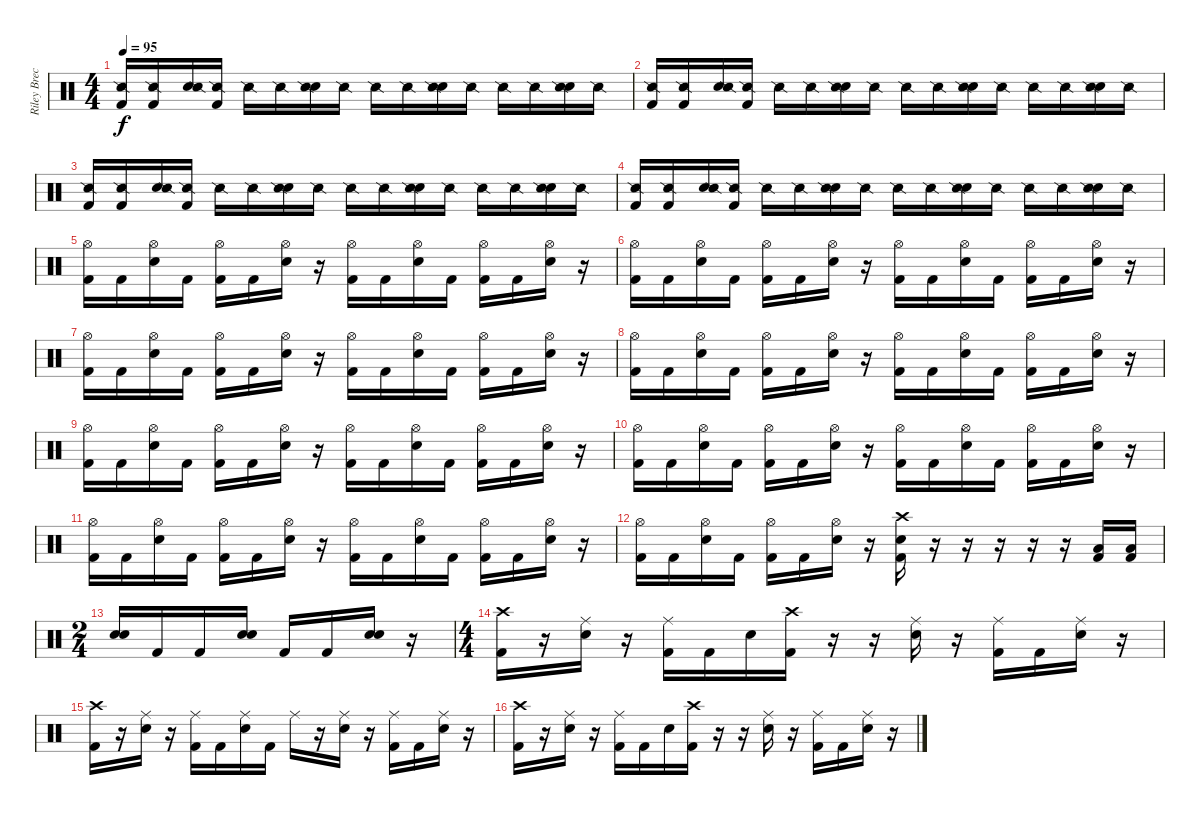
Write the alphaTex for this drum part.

\track ("Riley Breckenridge" "Riley Brec") {instrument percussion}
\staff {score}
\articulation defaults
\ts (4 4)
\tempo 95
\clef neutral
\ks c
("Kick (hit) 2" "Snare (side stick) 2").16{dy f} ("Kick (hit) 2" "Snare (side stick) 2").16 ("Electric Snare (hit)" "Snare (side stick) 2").16 ("Kick (hit) 2" "Snare (side stick) 2").16 "Snare (side stick) 2".16 "Snare (side stick) 2".16 ("Electric Snare (hit)" "Snare (side stick) 2").16 "Snare (side stick) 2".16 "Snare (side stick) 2".16 "Snare (side stick) 2".16 ("Electric Snare (hit)" "Snare (side stick) 2").16 "Snare (side stick) 2".16 "Snare (side stick) 2".16 "Snare (side stick) 2".16 ("Electric Snare (hit)" "Snare (side stick) 2").16 "Snare (side stick) 2".16 |
("Kick (hit) 2" "Snare (side stick) 2").16 ("Kick (hit) 2" "Snare (side stick) 2").16 ("Electric Snare (hit)" "Snare (side stick) 2").16 ("Kick (hit) 2" "Snare (side stick) 2").16 "Snare (side stick) 2".16 "Snare (side stick) 2".16 ("Electric Snare (hit)" "Snare (side stick) 2").16 "Snare (side stick) 2".16 "Snare (side stick) 2".16 "Snare (side stick) 2".16 ("Electric Snare (hit)" "Snare (side stick) 2").16 "Snare (side stick) 2".16 "Snare (side stick) 2".16 "Snare (side stick) 2".16 ("Electric Snare (hit)" "Snare (side stick) 2").16 "Snare (side stick) 2".16 |
("Kick (hit) 2" "Snare (side stick) 2").16 ("Kick (hit) 2" "Snare (side stick) 2").16 ("Electric Snare (hit)" "Snare (side stick) 2").16 ("Kick (hit) 2" "Snare (side stick) 2").16 "Snare (side stick) 2".16 "Snare (side stick) 2".16 ("Electric Snare (hit)" "Snare (side stick) 2").16 "Snare (side stick) 2".16 "Snare (side stick) 2".16 "Snare (side stick) 2".16 ("Electric Snare (hit)" "Snare (side stick) 2").16 "Snare (side stick) 2".16 "Snare (side stick) 2".16 "Snare (side stick) 2".16 ("Electric Snare (hit)" "Snare (side stick) 2").16 "Snare (side stick) 2".16 |
("Kick (hit) 2" "Snare (side stick) 2").16 ("Kick (hit) 2" "Snare (side stick) 2").16 ("Electric Snare (hit)" "Snare (side stick) 2").16 ("Kick (hit) 2" "Snare (side stick) 2").16 "Snare (side stick) 2".16 "Snare (side stick) 2".16 ("Electric Snare (hit)" "Snare (side stick) 2").16 "Snare (side stick) 2".16 "Snare (side stick) 2".16 "Snare (side stick) 2".16 ("Electric Snare (hit)" "Snare (side stick) 2").16 "Snare (side stick) 2".16 "Snare (side stick) 2".16 "Snare (side stick) 2".16 ("Electric Snare (hit)" "Snare (side stick) 2").16 "Snare (side stick) 2".16 |
("Kick (hit) 2" "Hi-Hat (open)").16 "Kick (hit) 2".16 ("Electric Snare (hit)" "Hi-Hat (open)").16 "Kick (hit) 2".16 ("Kick (hit) 2" "Hi-Hat (open)").16 "Kick (hit) 2".16 ("Electric Snare (hit)" "Hi-Hat (open)").16 r.16 ("Kick (hit) 2" "Hi-Hat (open)").16 "Kick (hit) 2".16 ("Electric Snare (hit)" "Hi-Hat (open)").16 "Kick (hit) 2".16 ("Kick (hit) 2" "Hi-Hat (open)").16 "Kick (hit) 2".16 ("Electric Snare (hit)" "Hi-Hat (open)").16 r.16 |
("Kick (hit) 2" "Hi-Hat (open)").16 "Kick (hit) 2".16 ("Electric Snare (hit)" "Hi-Hat (open)").16 "Kick (hit) 2".16 ("Kick (hit) 2" "Hi-Hat (open)").16 "Kick (hit) 2".16 ("Electric Snare (hit)" "Hi-Hat (open)").16 r.16 ("Kick (hit) 2" "Hi-Hat (open)").16 "Kick (hit) 2".16 ("Electric Snare (hit)" "Hi-Hat (open)").16 "Kick (hit) 2".16 ("Kick (hit) 2" "Hi-Hat (open)").16 "Kick (hit) 2".16 ("Electric Snare (hit)" "Hi-Hat (open)").16 r.16 |
("Kick (hit) 2" "Hi-Hat (open)").16 "Kick (hit) 2".16 ("Electric Snare (hit)" "Hi-Hat (open)").16 "Kick (hit) 2".16 ("Kick (hit) 2" "Hi-Hat (open)").16 "Kick (hit) 2".16 ("Electric Snare (hit)" "Hi-Hat (open)").16 r.16 ("Kick (hit) 2" "Hi-Hat (open)").16 "Kick (hit) 2".16 ("Electric Snare (hit)" "Hi-Hat (open)").16 "Kick (hit) 2".16 ("Kick (hit) 2" "Hi-Hat (open)").16 "Kick (hit) 2".16 ("Electric Snare (hit)" "Hi-Hat (open)").16 r.16 |
("Kick (hit) 2" "Hi-Hat (open)").16 "Kick (hit) 2".16 ("Electric Snare (hit)" "Hi-Hat (open)").16 "Kick (hit) 2".16 ("Kick (hit) 2" "Hi-Hat (open)").16 "Kick (hit) 2".16 ("Electric Snare (hit)" "Hi-Hat (open)").16 r.16 ("Kick (hit) 2" "Hi-Hat (open)").16 "Kick (hit) 2".16 ("Electric Snare (hit)" "Hi-Hat (open)").16 "Kick (hit) 2".16 ("Kick (hit) 2" "Hi-Hat (open)").16 "Kick (hit) 2".16 ("Electric Snare (hit)" "Hi-Hat (open)").16 r.16 |
("Kick (hit) 2" "Hi-Hat (open)").16 "Kick (hit) 2".16 ("Electric Snare (hit)" "Hi-Hat (open)").16 "Kick (hit) 2".16 ("Kick (hit) 2" "Hi-Hat (open)").16 "Kick (hit) 2".16 ("Electric Snare (hit)" "Hi-Hat (open)").16 r.16 ("Kick (hit) 2" "Hi-Hat (open)").16 "Kick (hit) 2".16 ("Electric Snare (hit)" "Hi-Hat (open)").16 "Kick (hit) 2".16 ("Kick (hit) 2" "Hi-Hat (open)").16 "Kick (hit) 2".16 ("Electric Snare (hit)" "Hi-Hat (open)").16 r.16 |
("Kick (hit) 2" "Hi-Hat (open)").16 "Kick (hit) 2".16 ("Electric Snare (hit)" "Hi-Hat (open)").16 "Kick (hit) 2".16 ("Kick (hit) 2" "Hi-Hat (open)").16 "Kick (hit) 2".16 ("Electric Snare (hit)" "Hi-Hat (open)").16 r.16 ("Kick (hit) 2" "Hi-Hat (open)").16 "Kick (hit) 2".16 ("Electric Snare (hit)" "Hi-Hat (open)").16 "Kick (hit) 2".16 ("Kick (hit) 2" "Hi-Hat (open)").16 "Kick (hit) 2".16 ("Electric Snare (hit)" "Hi-Hat (open)").16 r.16 |
("Kick (hit) 2" "Hi-Hat (open)").16 "Kick (hit) 2".16 ("Electric Snare (hit)" "Hi-Hat (open)").16 "Kick (hit) 2".16 ("Kick (hit) 2" "Hi-Hat (open)").16 "Kick (hit) 2".16 ("Electric Snare (hit)" "Hi-Hat (open)").16 r.16 ("Kick (hit) 2" "Hi-Hat (open)").16 "Kick (hit) 2".16 ("Electric Snare (hit)" "Hi-Hat (open)").16 "Kick (hit) 2".16 ("Kick (hit) 2" "Hi-Hat (open)").16 "Kick (hit) 2".16 ("Electric Snare (hit)" "Hi-Hat (open)").16 r.16 |
("Kick (hit) 2" "Hi-Hat (open)").16 "Kick (hit) 2".16 ("Electric Snare (hit)" "Hi-Hat (open)").16 "Kick (hit) 2".16 ("Kick (hit) 2" "Hi-Hat (open)").16 "Kick (hit) 2".16 ("Electric Snare (hit)" "Hi-Hat (open)").16 r.16 ("Kick (hit) 2" "Electric Snare (hit)" "Crash high (hit)").16 r.16 r.16 r.16 r.16 r.16 ("Kick (hit) 2" "Low Floor Tom (hit)").16 ("Kick (hit) 2" "Low Floor Tom (hit)").16 |
\ts (2 4)
("Electric Snare (hit)" "Electric Snare (hit)").16 "Kick (hit) 2".16 "Kick (hit) 2".16 ("Electric Snare (hit)" "Electric Snare (hit)").16 "Kick (hit) 2".16 "Kick (hit) 2".16 ("Electric Snare (hit)" "Electric Snare (hit)").16 r.16 |
\ts (4 4)
("Kick (hit) 2" "Crash high (hit)").16 r.16 ("Electric Snare (hit)" "Ride (middle)").16 r.16 ("Kick (hit) 2" "Ride (middle)").16 "Kick (hit) 2".16 "Electric Snare (hit)".16 ("Kick (hit) 2" "Crash high (hit)").16 r.16 r.16 ("Electric Snare (hit)" "Ride (middle)").16 r.16 ("Kick (hit) 2" "Ride (middle)").16 "Kick (hit) 2".16 ("Electric Snare (hit)" "Ride (middle)").16 r.16 |
("Kick (hit) 2" "Crash high (hit)").16 r.16 ("Electric Snare (hit)" "Ride (middle)").16 r.16 ("Kick (hit) 2" "Ride (middle)").16 "Kick (hit) 2".16 ("Electric Snare (hit)" "Ride (middle)").16 "Kick (hit) 2".16 "Ride (middle)".16 r.16 ("Electric Snare (hit)" "Ride (middle)").16 r.16 ("Kick (hit) 2" "Ride (middle)").16 "Kick (hit) 2".16 ("Electric Snare (hit)" "Ride (middle)").16 r.16 |
("Kick (hit) 2" "Crash high (hit)").16 r.16 ("Electric Snare (hit)" "Ride (middle)").16 r.16 ("Kick (hit) 2" "Ride (middle)").16 "Kick (hit) 2".16 "Electric Snare (hit)".16 ("Kick (hit) 2" "Crash high (hit)").16 r.16 r.16 ("Electric Snare (hit)" "Ride (middle)").16 r.16 ("Kick (hit) 2" "Ride (middle)").16 "Kick (hit) 2".16 ("Electric Snare (hit)" "Ride (middle)").16 r.16
